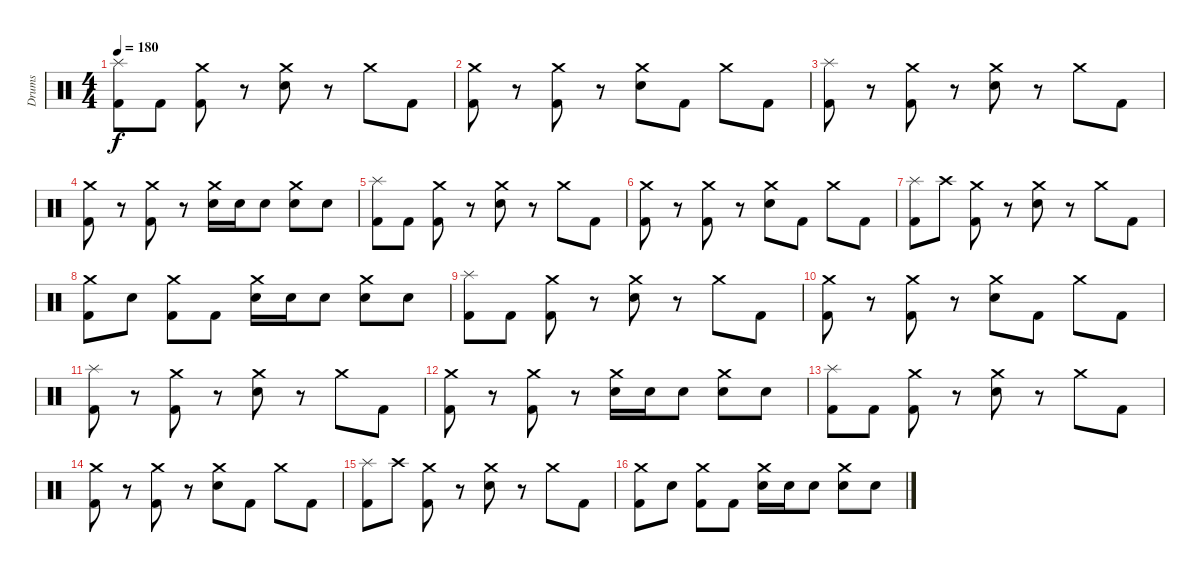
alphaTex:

\track ("Drums" "Drums") {instrument percussion}
\staff {score}
\articulation defaults
\ts (4 4)
\tempo 180
\clef neutral
\ks c
("Splash (hit)" "Kick (hit) 2").8{dy f} "Kick (hit) 2".8 ("Crash medium (hit)" "Kick (hit) 2").8 r.8 ("Crash medium (hit)" "Snare (hit) 2").8 r.8 "Crash medium (hit)".8 "Kick (hit) 2".8 |
("Crash medium (hit)" "Kick (hit) 2").8 r.8 ("Crash medium (hit)" "Kick (hit) 2").8 r.8 ("Crash medium (hit)" "Snare (hit) 2").8 "Kick (hit) 2".8 "Crash medium (hit)".8 "Kick (hit) 2".8 |
("Splash (hit)" "Kick (hit) 2").8 r.8 ("Crash medium (hit)" "Kick (hit) 2").8 r.8 ("Crash medium (hit)" "Snare (hit) 2").8 r.8 "Crash medium (hit)".8 "Kick (hit) 2".8 |
("Crash medium (hit)" "Kick (hit) 2").8 r.8 ("Crash medium (hit)" "Kick (hit) 2").8 r.8 ("Crash medium (hit)" "Snare (hit) 2").16 "Snare (hit) 2".16 "Snare (hit) 2".8 ("Crash medium (hit)" "Snare (hit) 2").8 "Snare (hit) 2".8 |
("Splash (hit)" "Kick (hit) 2").8 "Kick (hit) 2".8 ("Crash medium (hit)" "Kick (hit) 2").8 r.8 ("Crash medium (hit)" "Snare (hit) 2").8 r.8 "Crash medium (hit)".8 "Kick (hit) 2".8 |
("Crash medium (hit)" "Kick (hit) 2").8 r.8 ("Crash medium (hit)" "Kick (hit) 2").8 r.8 ("Crash medium (hit)" "Snare (hit) 2").8 "Kick (hit) 2".8 "Crash medium (hit)".8 "Kick (hit) 2".8 |
("Splash (hit)" "Kick (hit) 2").8 "Crash high (hit)".8 ("Crash medium (hit)" "Kick (hit) 2").8 r.8 ("Crash medium (hit)" "Snare (hit) 2").8 r.8 "Crash medium (hit)".8 "Kick (hit) 2".8 |
("Crash medium (hit)" "Kick (hit) 2").8 "Snare (hit) 2".8 ("Crash medium (hit)" "Kick (hit) 2").8 "Kick (hit) 2".8 ("Crash medium (hit)" "Snare (hit) 2").16 "Snare (hit) 2".16 "Snare (hit) 2".8 ("Crash medium (hit)" "Snare (hit) 2").8 "Snare (hit) 2".8 |
("Splash (hit)" "Kick (hit) 2").8 "Kick (hit) 2".8 ("Crash medium (hit)" "Kick (hit) 2").8 r.8 ("Crash medium (hit)" "Snare (hit) 2").8 r.8 "Crash medium (hit)".8 "Kick (hit) 2".8 |
("Crash medium (hit)" "Kick (hit) 2").8 r.8 ("Crash medium (hit)" "Kick (hit) 2").8 r.8 ("Crash medium (hit)" "Snare (hit) 2").8 "Kick (hit) 2".8 "Crash medium (hit)".8 "Kick (hit) 2".8 |
("Splash (hit)" "Kick (hit) 2").8 r.8 ("Crash medium (hit)" "Kick (hit) 2").8 r.8 ("Crash medium (hit)" "Snare (hit) 2").8 r.8 "Crash medium (hit)".8 "Kick (hit) 2".8 |
("Crash medium (hit)" "Kick (hit) 2").8 r.8 ("Crash medium (hit)" "Kick (hit) 2").8 r.8 ("Crash medium (hit)" "Snare (hit) 2").16 "Snare (hit) 2".16 "Snare (hit) 2".8 ("Crash medium (hit)" "Snare (hit) 2").8 "Snare (hit) 2".8 |
("Splash (hit)" "Kick (hit) 2").8 "Kick (hit) 2".8 ("Crash medium (hit)" "Kick (hit) 2").8 r.8 ("Crash medium (hit)" "Snare (hit) 2").8 r.8 "Crash medium (hit)".8 "Kick (hit) 2".8 |
("Crash medium (hit)" "Kick (hit) 2").8 r.8 ("Crash medium (hit)" "Kick (hit) 2").8 r.8 ("Crash medium (hit)" "Snare (hit) 2").8 "Kick (hit) 2".8 "Crash medium (hit)".8 "Kick (hit) 2".8 |
("Splash (hit)" "Kick (hit) 2").8 "Crash high (hit)".8 ("Crash medium (hit)" "Kick (hit) 2").8 r.8 ("Crash medium (hit)" "Snare (hit) 2").8 r.8 "Crash medium (hit)".8 "Kick (hit) 2".8 |
("Crash medium (hit)" "Kick (hit) 2").8 "Snare (hit) 2".8 ("Crash medium (hit)" "Kick (hit) 2").8 "Kick (hit) 2".8 ("Crash medium (hit)" "Snare (hit) 2").16 "Snare (hit) 2".16 "Snare (hit) 2".8 ("Crash medium (hit)" "Snare (hit) 2").8 "Snare (hit) 2".8
